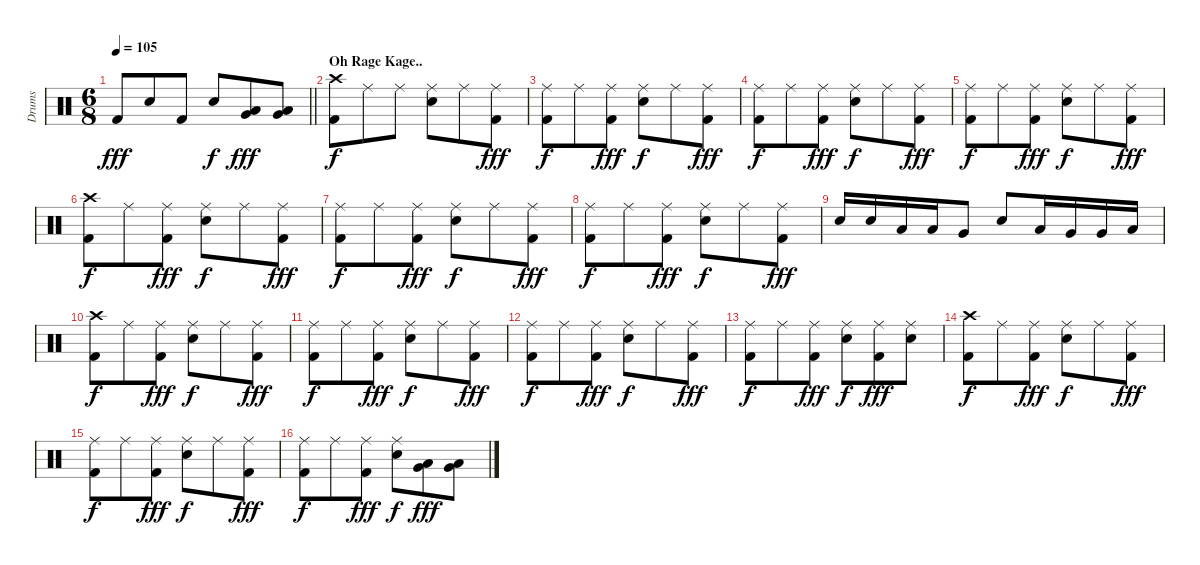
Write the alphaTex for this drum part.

\track ("Drums" "Drums") {instrument percussion}
\staff {score}
\articulation defaults
\ts (6 8)
\tempo 105
\clef neutral
\barLineRight lightlight
\ks c "Kick (hit) 2".8{dy fff} "Electric Snare (hit)".8 "Kick (hit) 2".8 "Electric Snare (hit)".8{dy f}
("Low Tom (hit)" "Very Low Tom (hit)").8{dy fff} ("Low Floor Tom (hit)" "Very Low Tom (hit)").8 |
\section ("" "Oh Rage Kage..")
("Crash high (hit)" "Kick (hit) 2").8{dy f} "Ride (middle)".8 "Ride (middle)".8 ("Ride (middle)" "Electric Snare (hit)").8 "Ride (middle)".8 ("Ride (middle)" "Kick (hit) 2").8{dy fff} |
("Ride (middle)" "Kick (hit) 2").8{dy f} "Ride (middle)".8 ("Ride (middle)" "Kick (hit) 2").8{dy fff} ("Ride (middle)" "Electric Snare (hit)").8{dy f} "Ride (middle)".8 ("Ride (middle)" "Kick (hit) 2").8{dy fff} |
("Ride (middle)" "Kick (hit) 2").8{dy f} "Ride (middle)".8 ("Ride (middle)" "Kick (hit) 2").8{dy fff} ("Ride (middle)" "Electric Snare (hit)").8{dy f} "Ride (middle)".8 ("Ride (middle)" "Kick (hit) 2").8{dy fff} |
("Ride (middle)" "Kick (hit) 2").8{dy f} "Ride (middle)".8 ("Ride (middle)" "Kick (hit) 2").8{dy fff} ("Ride (middle)" "Electric Snare (hit)").8{dy f} "Ride (middle)".8 ("Ride (middle)" "Kick (hit) 2").8{dy fff} |
("Crash high (hit)" "Kick (hit) 2").8{dy f} "Ride (middle)".8 ("Ride (middle)" "Kick (hit) 2").8{dy fff} ("Ride (middle)" "Electric Snare (hit)").8{dy f} "Ride (middle)".8 ("Ride (middle)" "Kick (hit) 2").8{dy fff} |
("Ride (middle)" "Kick (hit) 2").8{dy f} "Ride (middle)".8 ("Ride (middle)" "Kick (hit) 2").8{dy fff} ("Ride (middle)" "Electric Snare (hit)").8{dy f} "Ride (middle)".8 ("Ride (middle)" "Kick (hit) 2").8{dy fff} |
("Ride (middle)" "Kick (hit) 2").8{dy f} "Ride (middle)".8 ("Ride (middle)" "Kick (hit) 2").8{dy fff} ("Ride (middle)" "Electric Snare (hit)").8{dy f} "Ride (middle)".8 ("Ride (middle)" "Kick (hit) 2").8{dy fff} |
"Electric Snare (hit)".16 "Electric Snare (hit)".16 "Low Tom (hit)".16 "Low Tom (hit)".16 "Very Low Tom (hit)".8 "Electric Snare (hit)".8 "Low Tom (hit)".16 "Very Low Tom (hit)".16 "Very Low Tom (hit)".16 "Low Floor Tom (hit)".16 |
("Crash high (hit)" "Kick (hit) 2").8{dy f} "Ride (middle)".8 ("Ride (middle)" "Kick (hit) 2").8{dy fff} ("Ride (middle)" "Electric Snare (hit)").8{dy f} "Ride (middle)".8 ("Ride (middle)" "Kick (hit) 2").8{dy fff} |
("Ride (middle)" "Kick (hit) 2").8{dy f} "Ride (middle)".8 ("Ride (middle)" "Kick (hit) 2").8{dy fff} ("Ride (middle)" "Electric Snare (hit)").8{dy f} "Ride (middle)".8 ("Ride (middle)" "Kick (hit) 2").8{dy fff} |
("Ride (middle)" "Kick (hit) 2").8{dy f} "Ride (middle)".8 ("Ride (middle)" "Kick (hit) 2").8{dy fff} ("Ride (middle)" "Electric Snare (hit)").8{dy f} "Ride (middle)".8 ("Ride (middle)" "Kick (hit) 2").8{dy fff} |
("Ride (middle)" "Kick (hit) 2").8{dy f} "Ride (middle)".8 ("Ride (middle)" "Kick (hit) 2").8{dy fff} ("Ride (middle)" "Electric Snare (hit)").8{dy f} ("Ride (middle)" "Kick (hit) 2").8{dy fff} ("Ride (middle)" "Electric Snare (hit)").8 |
("Crash high (hit)" "Kick (hit) 2").8{dy f} "Ride (middle)".8 ("Ride (middle)" "Kick (hit) 2").8{dy fff} ("Ride (middle)" "Electric Snare (hit)").8{dy f} "Ride (middle)".8 ("Ride (middle)" "Kick (hit) 2").8{dy fff} |
("Ride (middle)" "Kick (hit) 2").8{dy f} "Ride (middle)".8 ("Ride (middle)" "Kick (hit) 2").8{dy fff} ("Ride (middle)" "Electric Snare (hit)").8{dy f} "Ride (middle)".8 ("Ride (middle)" "Kick (hit) 2").8{dy fff} |
("Ride (middle)" "Kick (hit) 2").8{dy f} "Ride (middle)".8 ("Ride (middle)" "Kick (hit) 2").8{dy fff} ("Ride (middle)" "Electric Snare (hit)").8{dy f} ("Very Low Tom (hit)" "Low Tom (hit)").8{dy fff} ("Very Low Tom (hit)" "Low Floor Tom (hit)").8
